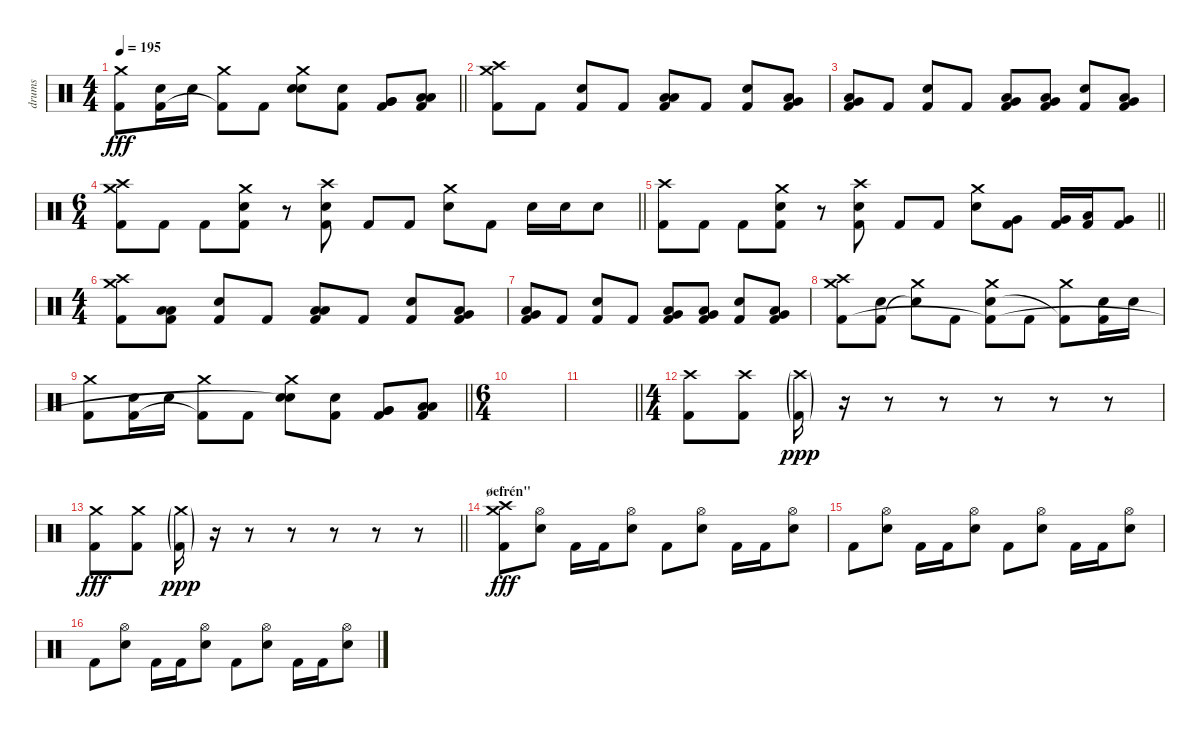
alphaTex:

\track ("drums" "drums") {instrument percussion}
\staff {score}
\articulation defaults
\ts (4 4)
\tempo 195
\clef neutral
\barLineRight lightlight
\ks c
("Crash medium (hit)" "Kick (hit) 2").8{dy fff} ("Electric Snare (hit)" "Kick (hit) 2").16 "Electric Snare (hit)".16 ("Crash medium (hit)" "Kick (hit) 2"{t}).8 "Kick (hit) 2".8 ("Crash medium (hit)" "Electric Snare (hit)" "Snare (hit)"{t}).8 ("Electric Snare (hit)" "Kick (hit) 2").8 ("Very Low Tom (hit)" "Very Low Tom (hit)" "Kick (hit) 2").8 ("Low Floor Tom (hit)" "Low Floor Tom (hit)" "Kick (hit) 2").8 |
\section ("" "")
("Crash high (hit)" "Crash medium (hit)" "Kick (hit) 2").8 "Kick (hit) 2".8 ("Electric Snare (hit)" "Kick (hit) 2").8 "Kick (hit) 2".8 ("Low Floor Tom (hit)" "Low Tom (hit)" "Kick (hit) 2").8 "Kick (hit) 2".8 ("Electric Snare (hit)" "Kick (hit) 2").8 ("Very Low Tom (hit)" "Low Floor Tom (hit)" "Kick (hit) 2").8 |
("Low Tom (hit)" "Very Low Tom (hit)" "Kick (hit) 2").8 "Kick (hit) 2".8 ("Electric Snare (hit)" "Kick (hit) 2").8 "Kick (hit) 2".8 ("Very Low Tom (hit)" "Low Floor Tom (hit)" "Kick (hit) 2").8 ("Very Low Tom (hit)" "Low Tom (hit)" "Kick (hit) 2").8 ("Electric Snare (hit)" "Kick (hit) 2").8 ("Low Floor Tom (hit)" "Very Low Tom (hit)" "Kick (hit) 2").8 |
\ts (6 4)
\barLineRight lightlight
("Crash high (hit)" "Crash medium (hit)" "Kick (hit) 2").8 "Kick (hit) 2".8 "Kick (hit) 2".8 ("Crash medium (hit)" "Electric Snare (hit)" "Kick (hit) 2").8 r.8 ("Crash high (hit)" "Electric Snare (hit)" "Kick (hit) 2").8 "Kick (hit) 2".8 "Kick (hit) 2".8 ("Crash medium (hit)" "Electric Snare (hit)").8 "Kick (hit) 2".8 "Electric Snare (hit)".16 "Electric Snare (hit)".16 "Electric Snare (hit)".8 |
\barLineRight lightlight
("Crash high (hit)" "Kick (hit) 2").8 "Kick (hit) 2".8 "Kick (hit) 2".8 ("Crash medium (hit)" "Electric Snare (hit)" "Kick (hit) 2").8 r.8 ("Crash high (hit)" "Electric Snare (hit)" "Kick (hit) 2").8 "Kick (hit) 2".8 "Kick (hit) 2".8 ("Crash medium (hit)" "Electric Snare (hit)").8 ("Very Low Tom (hit)" "Kick (hit) 2").8 ("Very Low Tom (hit)" "Kick (hit) 2").16 ("Low Floor Tom (hit)" "Kick (hit) 2").16 ("Very Low Tom (hit)" "Kick (hit) 2").8 |
\ts (4 4)
("Crash high (hit)" "Crash medium (hit)" "Kick (hit) 2").8 ("Low Tom (hit)" "Low Floor Tom (hit)" "Kick (hit) 2").8 ("Electric Snare (hit)" "Kick (hit) 2").8 "Kick (hit) 2".8 ("Low Floor Tom (hit)" "Low Tom (hit)" "Kick (hit) 2").8 "Kick (hit) 2".8 ("Electric Snare (hit)" "Kick (hit) 2").8 ("Very Low Tom (hit)" "Low Floor Tom (hit)" "Kick (hit) 2").8 |
("Low Tom (hit)" "Very Low Tom (hit)" "Kick (hit) 2").8 "Kick (hit) 2".8 ("Electric Snare (hit)" "Kick (hit) 2").8 "Kick (hit) 2".8 ("Very Low Tom (hit)" "Low Floor Tom (hit)" "Kick (hit) 2").8 ("Very Low Tom (hit)" "Low Tom (hit)" "Kick (hit) 2").8 ("Electric Snare (hit)" "Kick (hit) 2").8 ("Low Floor Tom (hit)" "Very Low Tom (hit)" "Kick (hit) 2").8 |
("Crash medium (hit)" "Crash high (hit)" "Kick (hit) 2").8 ("Electric Snare (hit)" "Kick (hit) 2").8 ("Crash medium (hit)" "Snare (hit)"{t}).8 "Kick (hit) 2".8 ("Crash medium (hit)" "Electric Snare (hit)" "Kick (hit) 2"{t}).8 "Kick (hit) 2".8 ("Crash medium (hit)" "Kick (hit) 2"{t}).8 ("Electric Snare (hit)" "Kick (hit) 2").16 "Electric Snare (hit)".16 |
\barLineRight lightlight
("Crash medium (hit)" "Kick (hit) 2").8 ("Electric Snare (hit)" "Kick (hit) 2").16 "Electric Snare (hit)".16 ("Crash medium (hit)" "Kick (hit) 2"{t}).8 "Kick (hit) 2".8 ("Crash medium (hit)" "Electric Snare (hit)" "Snare (hit)"{t}).8 ("Electric Snare (hit)" "Kick (hit) 2").8 ("Very Low Tom (hit)" "Very Low Tom (hit)" "Kick (hit) 2").8 ("Low Floor Tom (hit)" "Low Floor Tom (hit)" "Kick (hit) 2").8 |
\ts (6 4)
\section ("" "")
|
\barLineRight lightlight
|
\ts (4 4)
\section ("" "")
("Crash high (hit)" "Kick (hit) 2").8 ("Crash high (hit)" "Kick (hit) 2").8 ("Crash high (hit)"{g} "Kick (hit) 2"{g}).16{dy ppp} r.16 r.8 r.8 r.8 r.8 r.8 |
\barLineRight lightlight
("Crash medium (hit)" "Kick (hit) 2").8{dy fff} ("Crash medium (hit)" "Kick (hit) 2").8 ("Crash medium (hit)"{g} "Kick (hit) 2"{g}).16{dy ppp} r.16 r.8 r.8 r.8 r.8 r.8 |
\section ("" "øefrén\"")
("Crash medium (hit)" "Crash high (hit)" "Kick (hit) 2").8{dy fff} ("Hi-Hat (open)" "Electric Snare (hit)").8 "Kick (hit) 2".16 "Kick (hit) 2".16 ("Hi-Hat (open)" "Electric Snare (hit)").8 "Kick (hit) 2".8 ("Hi-Hat (open)" "Electric Snare (hit)").8 "Kick (hit) 2".16 "Kick (hit) 2".16 ("Hi-Hat (open)" "Electric Snare (hit)").8 |
"Kick (hit) 2".8 ("Hi-Hat (open)" "Electric Snare (hit)").8 "Kick (hit) 2".16 "Kick (hit) 2".16 ("Hi-Hat (open)" "Electric Snare (hit)").8 "Kick (hit) 2".8 ("Hi-Hat (open)" "Electric Snare (hit)").8 "Kick (hit) 2".16 "Kick (hit) 2".16 ("Hi-Hat (open)" "Electric Snare (hit)").8 |
"Kick (hit) 2".8 ("Hi-Hat (open)" "Electric Snare (hit)").8 "Kick (hit) 2".16 "Kick (hit) 2".16 ("Hi-Hat (open)" "Electric Snare (hit)").8 "Kick (hit) 2".8 ("Hi-Hat (open)" "Electric Snare (hit)").8 "Kick (hit) 2".16 "Kick (hit) 2".16 ("Hi-Hat (open)" "Electric Snare (hit)").8
